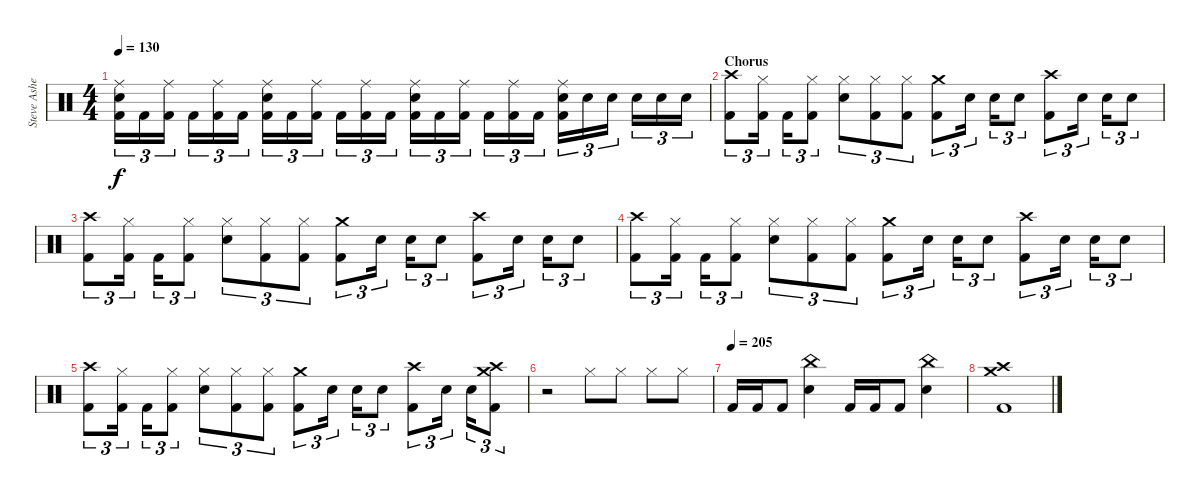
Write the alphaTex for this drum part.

\track ("Steve Asheim" "Steve Ashe") {instrument percussion}
\staff {score}
\articulation defaults
\ts (4 4)
\tempo 130
\clef neutral
\ks c
("Ride (middle)" "Electric Snare (hit)" "Kick (hit) 2").16{tu (3 2) dy f} "Kick (hit) 2".16{tu (3 2)} ("Ride (middle)" "Kick (hit) 2").16{tu (3 2)} "Kick (hit) 2".16{tu (3 2)} ("Ride (middle)" "Kick (hit) 2").16{tu (3 2)} "Kick (hit) 2".16{tu (3 2)} ("Ride (middle)" "Electric Snare (hit)" "Kick (hit) 2").16{tu (3 2)} "Kick (hit) 2".16{tu (3 2)} ("Ride (middle)" "Kick (hit) 2").16{tu (3 2)} "Kick (hit) 2".16{tu (3 2)} ("Ride (middle)" "Kick (hit) 2").16{tu (3 2)} "Kick (hit) 2".16{tu (3 2)} ("Ride (middle)" "Electric Snare (hit)" "Kick (hit) 2").16{tu (3 2)} "Kick (hit) 2".16{tu (3 2)} ("Ride (middle)" "Kick (hit) 2").16{tu (3 2)} "Kick (hit) 2".16{tu (3 2)} ("Ride (middle)" "Kick (hit) 2").16{tu (3 2)} "Kick (hit) 2".16{tu (3 2)} ("Ride (middle)" "Electric Snare (hit)" "Kick (hit) 2").16{tu (3 2)} "Electric Snare (hit)".16{tu (3 2)} "Electric Snare (hit)".16{tu (3 2)} "Electric Snare (hit)".16{tu (3 2)} "Electric Snare (hit)".16{tu (3 2)} "Electric Snare (hit)".16{tu (3 2)} |
\section ("" "Chorus")
("Crash high (hit)" "Kick (hit) 2").8{tu (3 2)} ("Hi-Hat (closed)" "Kick (hit) 2").16{tu (3 2)} "Kick (hit) 2".16{tu (3 2)} ("Hi-Hat (closed)" "Kick (hit) 2").8{tu (3 2)} ("Hi-Hat (closed)" "Electric Snare (hit)").8{tu (3 2)} ("Hi-Hat (closed)" "Kick (hit) 2").8{tu (3 2)} ("Hi-Hat (closed)" "Kick (hit) 2").8{tu (3 2)} ("Crash medium (hit)" "Kick (hit) 2").8{tu (3 2)} "Electric Snare (hit)".16{tu (3 2)} "Electric Snare (hit)".16{tu (3 2)} "Electric Snare (hit)".8{tu (3 2)} ("Crash high (hit)" "Kick (hit) 2").8{tu (3 2)} "Electric Snare (hit)".16{tu (3 2)} "Electric Snare (hit)".16{tu (3 2)} "Electric Snare (hit)".8{tu (3 2)} |
("Crash high (hit)" "Kick (hit) 2").8{tu (3 2)} ("Hi-Hat (closed)" "Kick (hit) 2").16{tu (3 2)} "Kick (hit) 2".16{tu (3 2)} ("Hi-Hat (closed)" "Kick (hit) 2").8{tu (3 2)} ("Hi-Hat (closed)" "Electric Snare (hit)").8{tu (3 2)} ("Hi-Hat (closed)" "Kick (hit) 2").8{tu (3 2)} ("Hi-Hat (closed)" "Kick (hit) 2").8{tu (3 2)} ("Crash medium (hit)" "Kick (hit) 2").8{tu (3 2)} "Electric Snare (hit)".16{tu (3 2)} "Electric Snare (hit)".16{tu (3 2)} "Electric Snare (hit)".8{tu (3 2)} ("Crash high (hit)" "Kick (hit) 2").8{tu (3 2)} "Electric Snare (hit)".16{tu (3 2)} "Electric Snare (hit)".16{tu (3 2)} "Electric Snare (hit)".8{tu (3 2)} |
("Crash high (hit)" "Kick (hit) 2").8{tu (3 2)} ("Hi-Hat (closed)" "Kick (hit) 2").16{tu (3 2)} "Kick (hit) 2".16{tu (3 2)} ("Hi-Hat (closed)" "Kick (hit) 2").8{tu (3 2)} ("Hi-Hat (closed)" "Electric Snare (hit)").8{tu (3 2)} ("Hi-Hat (closed)" "Kick (hit) 2").8{tu (3 2)} ("Hi-Hat (closed)" "Kick (hit) 2").8{tu (3 2)} ("Crash medium (hit)" "Kick (hit) 2").8{tu (3 2)} "Electric Snare (hit)".16{tu (3 2)} "Electric Snare (hit)".16{tu (3 2)} "Electric Snare (hit)".8{tu (3 2)} ("Crash high (hit)" "Kick (hit) 2").8{tu (3 2)} "Electric Snare (hit)".16{tu (3 2)} "Electric Snare (hit)".16{tu (3 2)} "Electric Snare (hit)".8{tu (3 2)} |
("Crash high (hit)" "Kick (hit) 2").8{tu (3 2)} ("Hi-Hat (closed)" "Kick (hit) 2").16{tu (3 2)} "Kick (hit) 2".16{tu (3 2)} ("Hi-Hat (closed)" "Kick (hit) 2").8{tu (3 2)} ("Hi-Hat (closed)" "Electric Snare (hit)").8{tu (3 2)} ("Hi-Hat (closed)" "Kick (hit) 2").8{tu (3 2)} ("Hi-Hat (closed)" "Kick (hit) 2").8{tu (3 2)} ("Crash medium (hit)" "Kick (hit) 2").8{tu (3 2)} "Electric Snare (hit)".16{tu (3 2)} "Electric Snare (hit)".16{tu (3 2)} "Electric Snare (hit)".8{tu (3 2)} ("Crash high (hit)" "Kick (hit) 2").8{tu (3 2)} "Electric Snare (hit)".16{tu (3 2)} "Electric Snare (hit)".16{tu (3 2)} ("Crash medium (hit)" "Crash high (hit)" "Kick (hit) 2").8{tu (3 2)} |
r.2 "Hi-Hat (closed)".8 "Hi-Hat (closed)".8 "Hi-Hat (closed)".8 "Hi-Hat (closed)".8 |
\tempo (205)
"Kick (hit) 2".16 "Kick (hit) 2".16 "Kick (hit) 2".8 ("China (hit)" "Electric Snare (hit)").4 "Kick (hit) 2".16 "Kick (hit) 2".16 "Kick (hit) 2".8 ("China (hit)" "Electric Snare (hit)").4 |
("Crash medium (hit)" "Crash high (hit)" "Kick (hit) 2").1
